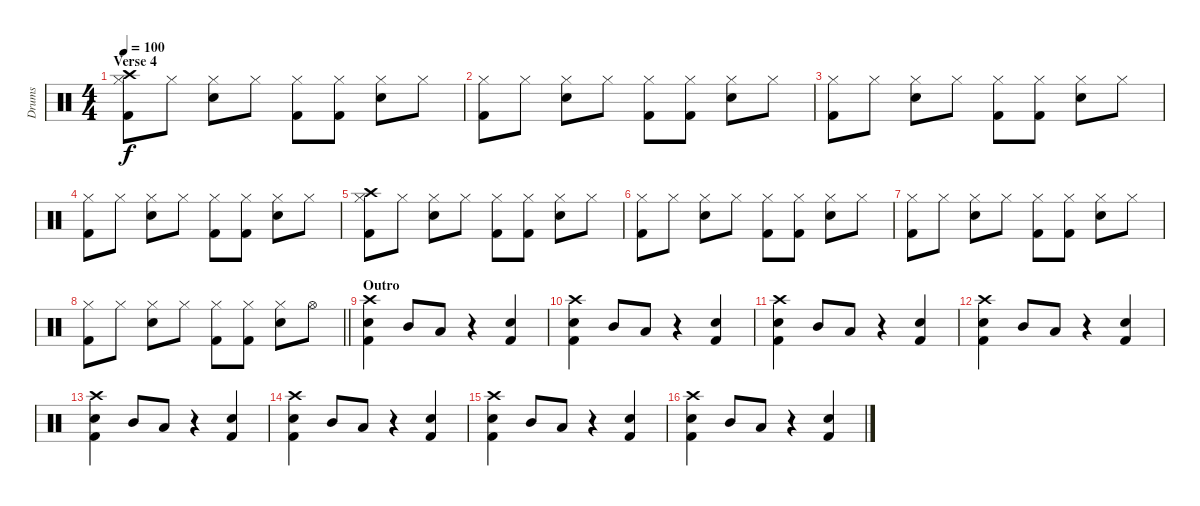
\track ("Drums" "Drums") {instrument percussion}
\staff {score}
\articulation defaults
\ts (4 4)
\section ("" "Verse 4")
\tempo 100
\clef neutral
\ks c
("Crash high (hit)" "Hi-Hat (closed)" "Kick (hit) 2").8{dy f} "Hi-Hat (closed)".8 ("Hi-Hat (closed)" "Snare (hit) 2").8 "Hi-Hat (closed)".8 ("Hi-Hat (closed)" "Kick (hit) 2").8 ("Hi-Hat (closed)" "Kick (hit) 2").8 ("Hi-Hat (closed)" "Snare (hit) 2").8 "Hi-Hat (closed)".8 |
("Hi-Hat (closed)" "Kick (hit) 2").8 "Hi-Hat (closed)".8 ("Hi-Hat (closed)" "Snare (hit) 2").8 "Hi-Hat (closed)".8 ("Hi-Hat (closed)" "Kick (hit) 2").8 ("Hi-Hat (closed)" "Kick (hit) 2").8 ("Hi-Hat (closed)" "Snare (hit) 2").8 "Hi-Hat (closed)".8 |
("Hi-Hat (closed)" "Kick (hit) 2").8 "Hi-Hat (closed)".8 ("Hi-Hat (closed)" "Snare (hit) 2").8 "Hi-Hat (closed)".8 ("Hi-Hat (closed)" "Kick (hit) 2").8 ("Hi-Hat (closed)" "Kick (hit) 2").8 ("Hi-Hat (closed)" "Snare (hit) 2").8 "Hi-Hat (closed)".8 |
("Hi-Hat (closed)" "Kick (hit) 2").8 "Hi-Hat (closed)".8 ("Hi-Hat (closed)" "Snare (hit) 2").8 "Hi-Hat (closed)".8 ("Hi-Hat (closed)" "Kick (hit) 2").8 ("Hi-Hat (closed)" "Kick (hit) 2").8 ("Hi-Hat (closed)" "Snare (hit) 2").8 "Hi-Hat (closed)".8 |
("Crash high (hit)" "Hi-Hat (closed)" "Kick (hit) 2").8 "Hi-Hat (closed)".8 ("Hi-Hat (closed)" "Snare (hit) 2").8 "Hi-Hat (closed)".8 ("Hi-Hat (closed)" "Kick (hit) 2").8 ("Hi-Hat (closed)" "Kick (hit) 2").8 ("Hi-Hat (closed)" "Snare (hit) 2").8 "Hi-Hat (closed)".8 |
("Hi-Hat (closed)" "Kick (hit) 2").8 "Hi-Hat (closed)".8 ("Hi-Hat (closed)" "Snare (hit) 2").8 "Hi-Hat (closed)".8 ("Hi-Hat (closed)" "Kick (hit) 2").8 ("Hi-Hat (closed)" "Kick (hit) 2").8 ("Hi-Hat (closed)" "Snare (hit) 2").8 "Hi-Hat (closed)".8 |
("Hi-Hat (closed)" "Kick (hit) 2").8 "Hi-Hat (closed)".8 ("Hi-Hat (closed)" "Snare (hit) 2").8 "Hi-Hat (closed)".8 ("Hi-Hat (closed)" "Kick (hit) 2").8 ("Hi-Hat (closed)" "Kick (hit) 2").8 ("Hi-Hat (closed)" "Snare (hit) 2").8 "Hi-Hat (closed)".8 |
\barLineRight lightlight
("Hi-Hat (closed)" "Kick (hit) 2").8 "Hi-Hat (closed)".8 ("Hi-Hat (closed)" "Snare (hit) 2").8 "Hi-Hat (closed)".8 ("Hi-Hat (closed)" "Kick (hit) 2").8 ("Hi-Hat (closed)" "Kick (hit) 2").8 ("Hi-Hat (closed)" "Snare (hit) 2").8 "Hi-Hat (open)".8 |
\section ("" "Outro")
("Crash high (hit)" "Snare (hit) 2" "Kick (hit) 2").4 "Mid Tom (hit)".8 "Low Tom (hit)".8 r.4 ("Snare (hit) 2" "Kick (hit) 2").4 |
("Crash high (hit)" "Snare (hit) 2" "Kick (hit) 2").4 "Mid Tom (hit)".8 "Low Tom (hit)".8 r.4 ("Snare (hit) 2" "Kick (hit) 2").4 |
("Crash high (hit)" "Snare (hit) 2" "Kick (hit) 2").4 "Mid Tom (hit)".8 "Low Tom (hit)".8 r.4 ("Snare (hit) 2" "Kick (hit) 2").4 |
("Crash high (hit)" "Snare (hit) 2" "Kick (hit) 2").4 "Mid Tom (hit)".8 "Low Tom (hit)".8 r.4 ("Snare (hit) 2" "Kick (hit) 2").4 |
("Crash high (hit)" "Snare (hit) 2" "Kick (hit) 2").4 "Mid Tom (hit)".8 "Low Tom (hit)".8 r.4 ("Snare (hit) 2" "Kick (hit) 2").4 |
("Crash high (hit)" "Snare (hit) 2" "Kick (hit) 2").4 "Mid Tom (hit)".8 "Low Tom (hit)".8 r.4 ("Snare (hit) 2" "Kick (hit) 2").4 |
("Crash high (hit)" "Snare (hit) 2" "Kick (hit) 2").4 "Mid Tom (hit)".8 "Low Tom (hit)".8 r.4 ("Snare (hit) 2" "Kick (hit) 2").4 |
("Crash high (hit)" "Snare (hit) 2" "Kick (hit) 2").4 "Mid Tom (hit)".8 "Low Tom (hit)".8 r.4 ("Snare (hit) 2" "Kick (hit) 2").4
